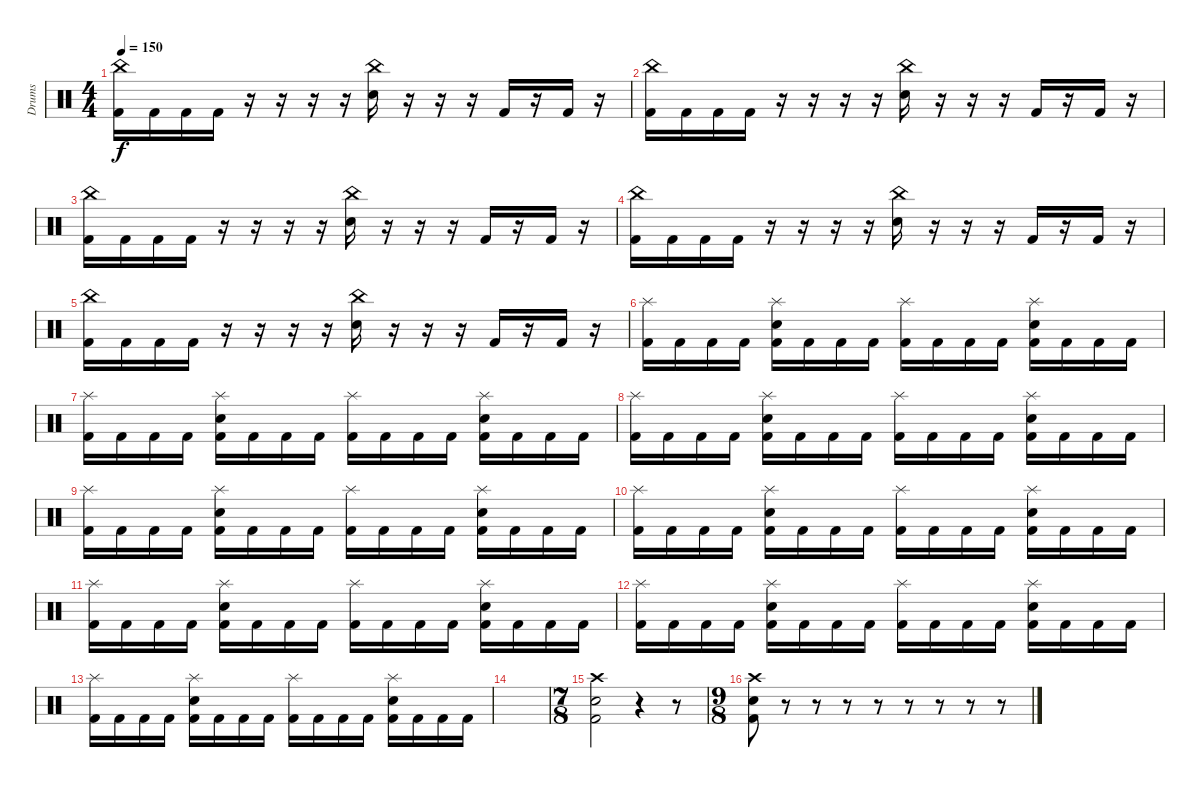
\track ("Drums" "Drums") {instrument percussion}
\staff {score}
\articulation defaults
\ts (4 4)
\tempo 150
\clef neutral
\ks c
("China (hit)" "Kick (hit) 2").16{dy f} "Kick (hit) 2".16 "Kick (hit) 2".16 "Kick (hit) 2".16 r.16 r.16 r.16 r.16 ("China (hit)" "Electric Snare (hit)").16 r.16 r.16 r.16 "Kick (hit) 2".16 r.16 "Kick (hit) 2".16 r.16 |
("China (hit)" "Kick (hit) 2").16 "Kick (hit) 2".16 "Kick (hit) 2".16 "Kick (hit) 2".16 r.16 r.16 r.16 r.16 ("China (hit)" "Electric Snare (hit)").16 r.16 r.16 r.16 "Kick (hit) 2".16 r.16 "Kick (hit) 2".16 r.16 |
("China (hit)" "Kick (hit) 2").16 "Kick (hit) 2".16 "Kick (hit) 2".16 "Kick (hit) 2".16 r.16 r.16 r.16 r.16 ("China (hit)" "Electric Snare (hit)").16 r.16 r.16 r.16 "Kick (hit) 2".16 r.16 "Kick (hit) 2".16 r.16 |
("China (hit)" "Kick (hit) 2").16 "Kick (hit) 2".16 "Kick (hit) 2".16 "Kick (hit) 2".16 r.16 r.16 r.16 r.16 ("China (hit)" "Electric Snare (hit)").16 r.16 r.16 r.16 "Kick (hit) 2".16 r.16 "Kick (hit) 2".16 r.16 |
("China (hit)" "Kick (hit) 2").16 "Kick (hit) 2".16 "Kick (hit) 2".16 "Kick (hit) 2".16 r.16 r.16 r.16 r.16 ("China (hit)" "Electric Snare (hit)").16 r.16 r.16 r.16 "Kick (hit) 2".16 r.16 "Kick (hit) 2".16 r.16 |
("Splash (hit)" "Kick (hit) 2").16 "Kick (hit) 2".16 "Kick (hit) 2".16 "Kick (hit) 2".16 ("Splash (hit)" "Electric Snare (hit)" "Kick (hit) 2").16 "Kick (hit) 2".16 "Kick (hit) 2".16 "Kick (hit) 2".16 ("Splash (hit)" "Kick (hit) 2").16 "Kick (hit) 2".16 "Kick (hit) 2".16 "Kick (hit) 2".16 ("Splash (hit)" "Electric Snare (hit)" "Kick (hit) 2").16 "Kick (hit) 2".16 "Kick (hit) 2".16 "Kick (hit) 2".16 |
("Splash (hit)" "Kick (hit) 2").16 "Kick (hit) 2".16 "Kick (hit) 2".16 "Kick (hit) 2".16 ("Splash (hit)" "Electric Snare (hit)" "Kick (hit) 2").16 "Kick (hit) 2".16 "Kick (hit) 2".16 "Kick (hit) 2".16 ("Splash (hit)" "Kick (hit) 2").16 "Kick (hit) 2".16 "Kick (hit) 2".16 "Kick (hit) 2".16 ("Splash (hit)" "Electric Snare (hit)" "Kick (hit) 2").16 "Kick (hit) 2".16 "Kick (hit) 2".16 "Kick (hit) 2".16 |
("Splash (hit)" "Kick (hit) 2").16 "Kick (hit) 2".16 "Kick (hit) 2".16 "Kick (hit) 2".16 ("Splash (hit)" "Electric Snare (hit)" "Kick (hit) 2").16 "Kick (hit) 2".16 "Kick (hit) 2".16 "Kick (hit) 2".16 ("Splash (hit)" "Kick (hit) 2").16 "Kick (hit) 2".16 "Kick (hit) 2".16 "Kick (hit) 2".16 ("Splash (hit)" "Electric Snare (hit)" "Kick (hit) 2").16 "Kick (hit) 2".16 "Kick (hit) 2".16 "Kick (hit) 2".16 |
("Splash (hit)" "Kick (hit) 2").16 "Kick (hit) 2".16 "Kick (hit) 2".16 "Kick (hit) 2".16 ("Splash (hit)" "Electric Snare (hit)" "Kick (hit) 2").16 "Kick (hit) 2".16 "Kick (hit) 2".16 "Kick (hit) 2".16 ("Splash (hit)" "Kick (hit) 2").16 "Kick (hit) 2".16 "Kick (hit) 2".16 "Kick (hit) 2".16 ("Splash (hit)" "Electric Snare (hit)" "Kick (hit) 2").16 "Kick (hit) 2".16 "Kick (hit) 2".16 "Kick (hit) 2".16 |
("Splash (hit)" "Kick (hit) 2").16 "Kick (hit) 2".16 "Kick (hit) 2".16 "Kick (hit) 2".16 ("Splash (hit)" "Electric Snare (hit)" "Kick (hit) 2").16 "Kick (hit) 2".16 "Kick (hit) 2".16 "Kick (hit) 2".16 ("Splash (hit)" "Kick (hit) 2").16 "Kick (hit) 2".16 "Kick (hit) 2".16 "Kick (hit) 2".16 ("Splash (hit)" "Electric Snare (hit)" "Kick (hit) 2").16 "Kick (hit) 2".16 "Kick (hit) 2".16 "Kick (hit) 2".16 |
("Splash (hit)" "Kick (hit) 2").16 "Kick (hit) 2".16 "Kick (hit) 2".16 "Kick (hit) 2".16 ("Splash (hit)" "Electric Snare (hit)" "Kick (hit) 2").16 "Kick (hit) 2".16 "Kick (hit) 2".16 "Kick (hit) 2".16 ("Splash (hit)" "Kick (hit) 2").16 "Kick (hit) 2".16 "Kick (hit) 2".16 "Kick (hit) 2".16 ("Splash (hit)" "Electric Snare (hit)" "Kick (hit) 2").16 "Kick (hit) 2".16 "Kick (hit) 2".16 "Kick (hit) 2".16 |
("Splash (hit)" "Kick (hit) 2").16 "Kick (hit) 2".16 "Kick (hit) 2".16 "Kick (hit) 2".16 ("Splash (hit)" "Electric Snare (hit)" "Kick (hit) 2").16 "Kick (hit) 2".16 "Kick (hit) 2".16 "Kick (hit) 2".16 ("Splash (hit)" "Kick (hit) 2").16 "Kick (hit) 2".16 "Kick (hit) 2".16 "Kick (hit) 2".16 ("Splash (hit)" "Electric Snare (hit)" "Kick (hit) 2").16 "Kick (hit) 2".16 "Kick (hit) 2".16 "Kick (hit) 2".16 |
("Splash (hit)" "Kick (hit) 2").16 "Kick (hit) 2".16 "Kick (hit) 2".16 "Kick (hit) 2".16 ("Splash (hit)" "Electric Snare (hit)" "Kick (hit) 2").16 "Kick (hit) 2".16 "Kick (hit) 2".16 "Kick (hit) 2".16 ("Splash (hit)" "Kick (hit) 2").16 "Kick (hit) 2".16 "Kick (hit) 2".16 "Kick (hit) 2".16 ("Splash (hit)" "Electric Snare (hit)" "Kick (hit) 2").16 "Kick (hit) 2".16 "Kick (hit) 2".16 "Kick (hit) 2".16 |
|
\ts (7 8)
("Crash high (hit)" "Electric Snare (hit)" "Kick (hit) 2").2 r.4 r.8 |
\ts (9 8)
("Crash high (hit)" "Electric Snare (hit)" "Kick (hit) 2").8 r.8 r.8 r.8 r.8 r.8 r.8 r.8 r.8
